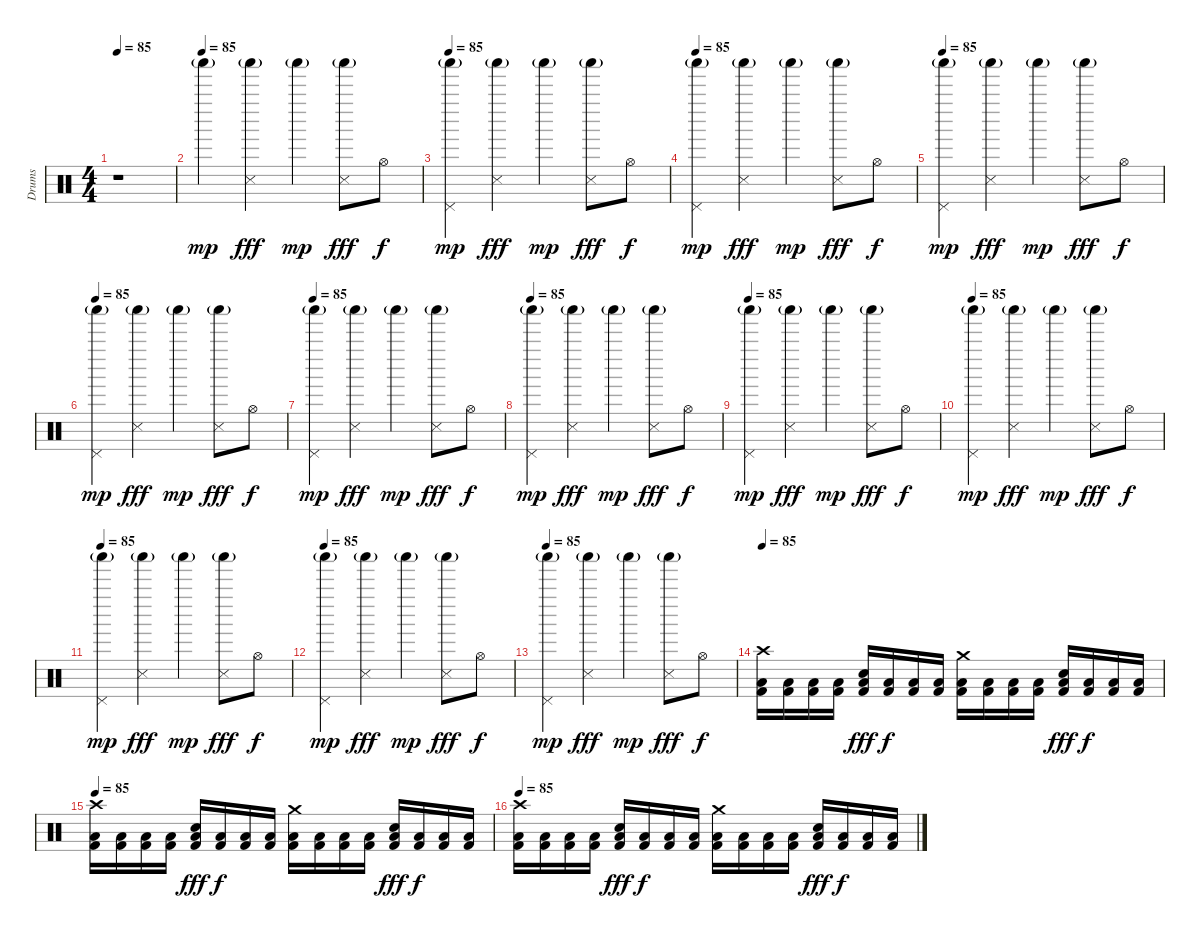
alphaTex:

\track ("Drums" "Drums") {instrument percussion}
\staff {score}
\articulation defaults
\ts (4 4)
\tempo 85
\clef neutral
\ks c
r.1{dy f} |
\tempo (85)
"Shaker (hit)"{g}.4{dy mp} ("Shaker (hit)"{g} "Snare (side stick) 3").4{dy fff} "Shaker (hit)"{g}.4{dy mp} ("Shaker (hit)"{g} "Snare (side stick) 3").8{dy fff} "Hi-Hat (open)".8{dy f} |
\tempo 85
("Shaker (hit)"{g} "Pedal Hi-Hat (hit)").4{dy mp} ("Shaker (hit)"{g} "Snare (side stick) 3").4{dy fff} "Shaker (hit)"{g}.4{dy mp} ("Shaker (hit)"{g} "Snare (side stick) 3").8{dy fff} "Hi-Hat (open)".8{dy f} |
\tempo 85
("Shaker (hit)"{g} "Pedal Hi-Hat (hit)").4{dy mp} ("Shaker (hit)"{g} "Snare (side stick) 3").4{dy fff} "Shaker (hit)"{g}.4{dy mp} ("Shaker (hit)"{g} "Snare (side stick) 3").8{dy fff} "Hi-Hat (open)".8{dy f} |
\tempo 85
("Shaker (hit)"{g} "Pedal Hi-Hat (hit)").4{dy mp} ("Shaker (hit)"{g} "Snare (side stick) 3").4{dy fff} "Shaker (hit)"{g}.4{dy mp} ("Shaker (hit)"{g} "Snare (side stick) 3").8{dy fff} "Hi-Hat (open)".8{dy f} |
\tempo 85
("Shaker (hit)"{g} "Pedal Hi-Hat (hit)").4{dy mp} ("Shaker (hit)"{g} "Snare (side stick) 3").4{dy fff} "Shaker (hit)"{g}.4{dy mp} ("Shaker (hit)"{g} "Snare (side stick) 3").8{dy fff} "Hi-Hat (open)".8{dy f} |
\tempo 85
("Shaker (hit)"{g} "Pedal Hi-Hat (hit)").4{dy mp} ("Shaker (hit)"{g} "Snare (side stick) 3").4{dy fff} "Shaker (hit)"{g}.4{dy mp} ("Shaker (hit)"{g} "Snare (side stick) 3").8{dy fff} "Hi-Hat (open)".8{dy f} |
\tempo 85
("Shaker (hit)"{g} "Pedal Hi-Hat (hit)").4{dy mp} ("Shaker (hit)"{g} "Snare (side stick) 3").4{dy fff} "Shaker (hit)"{g}.4{dy mp} ("Shaker (hit)"{g} "Snare (side stick) 3").8{dy fff} "Hi-Hat (open)".8{dy f} |
\tempo 85
("Shaker (hit)"{g} "Pedal Hi-Hat (hit)").4{dy mp} ("Shaker (hit)"{g} "Snare (side stick) 3").4{dy fff} "Shaker (hit)"{g}.4{dy mp} ("Shaker (hit)"{g} "Snare (side stick) 3").8{dy fff} "Hi-Hat (open)".8{dy f} |
\tempo 85
("Shaker (hit)"{g} "Pedal Hi-Hat (hit)").4{dy mp} ("Shaker (hit)"{g} "Snare (side stick) 3").4{dy fff} "Shaker (hit)"{g}.4{dy mp} ("Shaker (hit)"{g} "Snare (side stick) 3").8{dy fff} "Hi-Hat (open)".8{dy f} |
\tempo 85
("Shaker (hit)"{g} "Pedal Hi-Hat (hit)").4{dy mp} ("Shaker (hit)"{g} "Snare (side stick) 3").4{dy fff} "Shaker (hit)"{g}.4{dy mp} ("Shaker (hit)"{g} "Snare (side stick) 3").8{dy fff} "Hi-Hat (open)".8{dy f} |
\tempo 85
("Shaker (hit)"{g} "Pedal Hi-Hat (hit)").4{dy mp} ("Shaker (hit)"{g} "Snare (side stick) 3").4{dy fff} "Shaker (hit)"{g}.4{dy mp} ("Shaker (hit)"{g} "Snare (side stick) 3").8{dy fff} "Hi-Hat (open)".8{dy f} |
\tempo 85
("Shaker (hit)"{g} "Pedal Hi-Hat (hit)").4{dy mp} ("Shaker (hit)"{g} "Snare (side stick) 3").4{dy fff} "Shaker (hit)"{g}.4{dy mp} ("Shaker (hit)"{g} "Snare (side stick) 3").8{dy fff} "Hi-Hat (open)".8{dy f} |
\tempo 85
("Crash high (hit)" "Low Floor Tom (hit)" "Kick (hit) 2").16 ("Low Floor Tom (hit)" "Kick (hit) 2").16 ("Low Floor Tom (hit)" "Kick (hit) 2").16 ("Low Floor Tom (hit)" "Kick (hit) 2").16 ("Snare (hit) 2" "Low Floor Tom (hit)" "Kick (hit) 2").16{dy fff} ("Low Floor Tom (hit)" "Kick (hit) 2").16{dy f} ("Low Floor Tom (hit)" "Kick (hit) 2").16 ("Low Floor Tom (hit)" "Kick (hit) 2").16 ("Crash medium (hit)" "Low Floor Tom (hit)" "Kick (hit) 2").16 ("Low Floor Tom (hit)" "Kick (hit) 2").16 ("Low Floor Tom (hit)" "Kick (hit) 2").16 ("Low Floor Tom (hit)" "Kick (hit) 2").16 ("Snare (hit) 2" "Low Floor Tom (hit)" "Kick (hit) 2").16{dy fff} ("Low Floor Tom (hit)" "Kick (hit) 2").16{dy f} ("Low Floor Tom (hit)" "Kick (hit) 2").16 ("Low Floor Tom (hit)" "Kick (hit) 2").16 |
\tempo 85
("Crash high (hit)" "Low Floor Tom (hit)" "Kick (hit) 2").16 ("Low Floor Tom (hit)" "Kick (hit) 2").16 ("Low Floor Tom (hit)" "Kick (hit) 2").16 ("Low Floor Tom (hit)" "Kick (hit) 2").16 ("Snare (hit) 2" "Low Floor Tom (hit)" "Kick (hit) 2").16{dy fff} ("Low Floor Tom (hit)" "Kick (hit) 2").16{dy f} ("Low Floor Tom (hit)" "Kick (hit) 2").16 ("Low Floor Tom (hit)" "Kick (hit) 2").16 ("Crash medium (hit)" "Low Floor Tom (hit)" "Kick (hit) 2").16 ("Low Floor Tom (hit)" "Kick (hit) 2").16 ("Low Floor Tom (hit)" "Kick (hit) 2").16 ("Low Floor Tom (hit)" "Kick (hit) 2").16 ("Snare (hit) 2" "Low Floor Tom (hit)" "Kick (hit) 2").16{dy fff} ("Low Floor Tom (hit)" "Kick (hit) 2").16{dy f} ("Low Floor Tom (hit)" "Kick (hit) 2").16 ("Low Floor Tom (hit)" "Kick (hit) 2").16 |
\tempo 85
("Crash high (hit)" "Low Floor Tom (hit)" "Kick (hit) 2").16 ("Low Floor Tom (hit)" "Kick (hit) 2").16 ("Low Floor Tom (hit)" "Kick (hit) 2").16 ("Low Floor Tom (hit)" "Kick (hit) 2").16 ("Snare (hit) 2" "Low Floor Tom (hit)" "Kick (hit) 2").16{dy fff} ("Low Floor Tom (hit)" "Kick (hit) 2").16{dy f} ("Low Floor Tom (hit)" "Kick (hit) 2").16 ("Low Floor Tom (hit)" "Kick (hit) 2").16 ("Crash medium (hit)" "Low Floor Tom (hit)" "Kick (hit) 2").16 ("Low Floor Tom (hit)" "Kick (hit) 2").16 ("Low Floor Tom (hit)" "Kick (hit) 2").16 ("Low Floor Tom (hit)" "Kick (hit) 2").16 ("Snare (hit) 2" "Low Floor Tom (hit)" "Kick (hit) 2").16{dy fff} ("Low Floor Tom (hit)" "Kick (hit) 2").16{dy f} ("Low Floor Tom (hit)" "Kick (hit) 2").16 ("Low Floor Tom (hit)" "Kick (hit) 2").16
